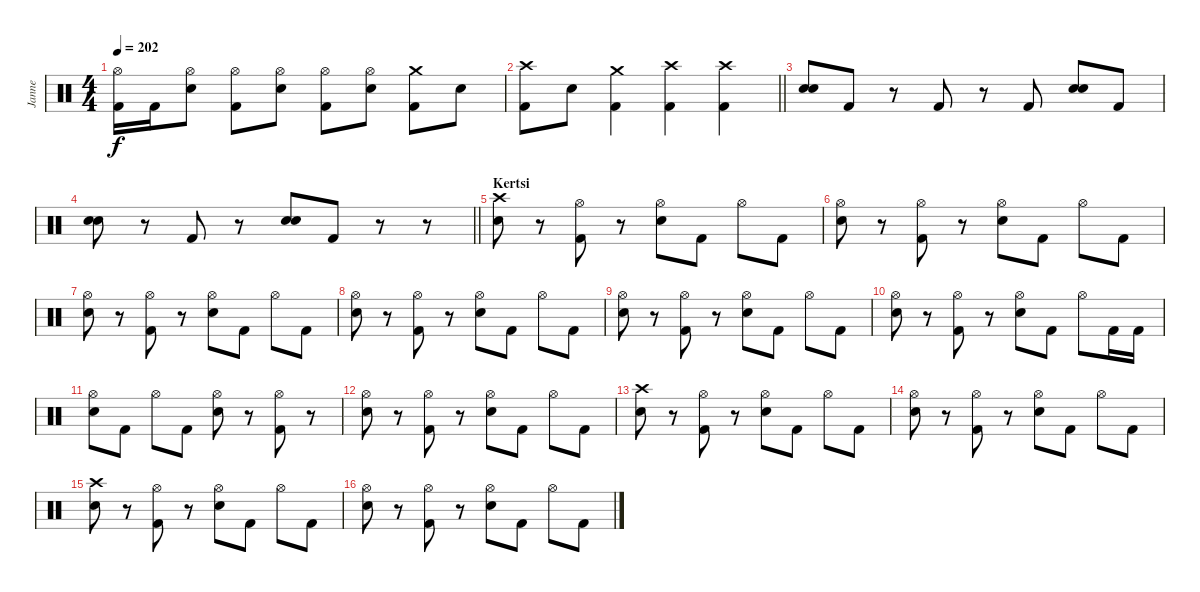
\track ("Janne" "Janne") {instrument percussion}
\staff {score}
\articulation defaults
\ts (4 4)
\tempo 202
\clef neutral
\ks c
("Hi-Hat (open)" "Kick (hit) 2").16{dy f} "Kick (hit) 2".16 ("Hi-Hat (open)" "Electric Snare (hit)").8 ("Hi-Hat (open)" "Kick (hit) 2").8 ("Hi-Hat (open)" "Electric Snare (hit)").8 ("Hi-Hat (open)" "Kick (hit) 2").8 ("Hi-Hat (open)" "Electric Snare (hit)").8 ("Crash medium (hit)" "Kick (hit) 2").8 "Electric Snare (hit)".8 |
\barLineRight lightlight
("Crash high (hit)" "Kick (hit) 2").8 "Electric Snare (hit)".8 ("Crash medium (hit)" "Kick (hit) 2").4 ("Crash high (hit)" "Kick (hit) 2").4 ("Crash high (hit)" "Kick (hit) 2").4 |
\section ("" "")
("Electric Snare (hit)" "Electric Snare (hit)").8 "Kick (hit) 2".8 r.8 "Kick (hit) 2".8 r.8 "Kick (hit) 2".8 ("Electric Snare (hit)" "Electric Snare (hit)").8 "Kick (hit) 2".8 |
\barLineRight lightlight
("Electric Snare (hit)" "Electric Snare (hit)").8 r.8 "Kick (hit) 2".8 r.8 ("Electric Snare (hit)" "Electric Snare (hit)").8 "Kick (hit) 2".8 r.8 r.8 |
\section ("" "Kertsi")
("Crash high (hit)" "Electric Snare (hit)").8 r.8 ("Hi-Hat (open)" "Kick (hit) 2").8 r.8 ("Hi-Hat (open)" "Electric Snare (hit)").8 "Kick (hit) 2".8 "Hi-Hat (open)".8 "Kick (hit) 2".8 |
("Hi-Hat (open)" "Electric Snare (hit)").8 r.8 ("Hi-Hat (open)" "Kick (hit) 2").8 r.8 ("Hi-Hat (open)" "Electric Snare (hit)").8 "Kick (hit) 2".8 "Hi-Hat (open)".8 "Kick (hit) 2".8 |
("Hi-Hat (open)" "Electric Snare (hit)").8 r.8 ("Hi-Hat (open)" "Kick (hit) 2").8 r.8 ("Hi-Hat (open)" "Electric Snare (hit)").8 "Kick (hit) 2".8 "Hi-Hat (open)".8 "Kick (hit) 2".8 |
("Hi-Hat (open)" "Electric Snare (hit)").8 r.8 ("Hi-Hat (open)" "Kick (hit) 2").8 r.8 ("Hi-Hat (open)" "Electric Snare (hit)").8 "Kick (hit) 2".8 "Hi-Hat (open)".8 "Kick (hit) 2".8 |
("Hi-Hat (open)" "Electric Snare (hit)").8 r.8 ("Hi-Hat (open)" "Kick (hit) 2").8 r.8 ("Hi-Hat (open)" "Electric Snare (hit)").8 "Kick (hit) 2".8 "Hi-Hat (open)".8 "Kick (hit) 2".8 |
("Hi-Hat (open)" "Electric Snare (hit)").8 r.8 ("Hi-Hat (open)" "Kick (hit) 2").8 r.8 ("Hi-Hat (open)" "Electric Snare (hit)").8 "Kick (hit) 2".8 "Hi-Hat (open)".8 "Kick (hit) 2".16 "Kick (hit) 2".16 |
("Hi-Hat (open)" "Electric Snare (hit)").8 "Kick (hit) 2".8 "Hi-Hat (open)".8 "Kick (hit) 2".8 ("Hi-Hat (open)" "Electric Snare (hit)").8 r.8 ("Hi-Hat (open)" "Kick (hit) 2").8 r.8 |
("Hi-Hat (open)" "Electric Snare (hit)").8 r.8 ("Hi-Hat (open)" "Kick (hit) 2").8 r.8 ("Hi-Hat (open)" "Electric Snare (hit)").8 "Kick (hit) 2".8 "Hi-Hat (open)".8 "Kick (hit) 2".8 |
("Crash high (hit)" "Electric Snare (hit)").8 r.8 ("Hi-Hat (open)" "Kick (hit) 2").8 r.8 ("Hi-Hat (open)" "Electric Snare (hit)").8 "Kick (hit) 2".8 "Hi-Hat (open)".8 "Kick (hit) 2".8 |
("Hi-Hat (open)" "Electric Snare (hit)").8 r.8 ("Hi-Hat (open)" "Kick (hit) 2").8 r.8 ("Hi-Hat (open)" "Electric Snare (hit)").8 "Kick (hit) 2".8 "Hi-Hat (open)".8 "Kick (hit) 2".8 |
("Crash high (hit)" "Electric Snare (hit)").8 r.8 ("Hi-Hat (open)" "Kick (hit) 2").8 r.8 ("Hi-Hat (open)" "Electric Snare (hit)").8 "Kick (hit) 2".8 "Hi-Hat (open)".8 "Kick (hit) 2".8 |
("Hi-Hat (open)" "Electric Snare (hit)").8 r.8 ("Hi-Hat (open)" "Kick (hit) 2").8 r.8 ("Hi-Hat (open)" "Electric Snare (hit)").8 "Kick (hit) 2".8 "Hi-Hat (open)".8 "Kick (hit) 2".8
